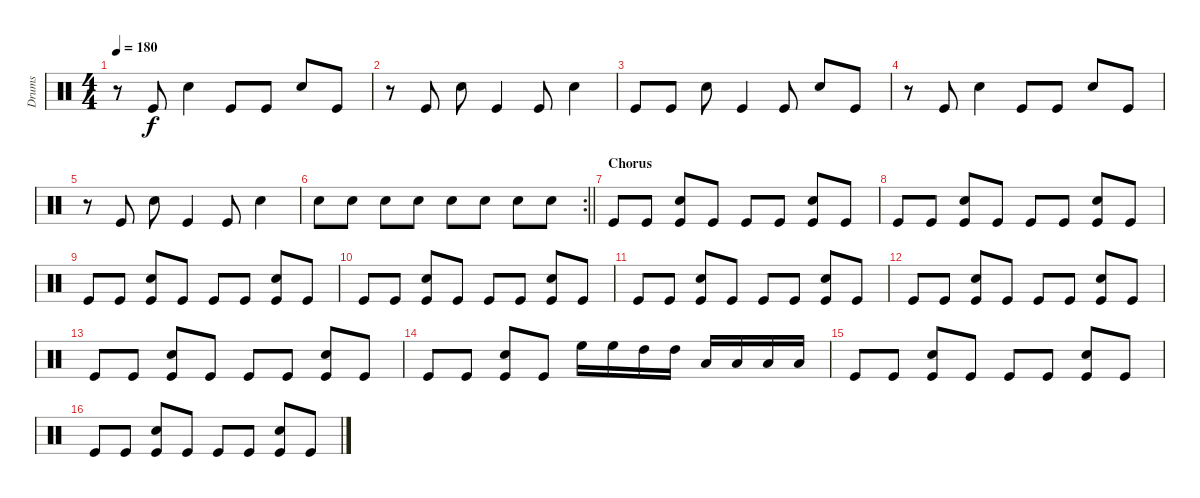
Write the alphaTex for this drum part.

\track ("Drums" "Drums") {instrument percussion}
\staff {score}
\articulation defaults
\ts (4 4)
\tempo 180
\clef neutral
\ks c
r.8{dy f} "Kick (hit)".8 "Electric Snare (hit)".4 "Kick (hit)".8 "Kick (hit)".8 "Electric Snare (hit)".8 "Kick (hit)".8 |
r.8 "Kick (hit)".8 "Electric Snare (hit)".8 "Kick (hit)".4 "Kick (hit)".8 "Electric Snare (hit)".4 |
"Kick (hit)".8 "Kick (hit)".8 "Electric Snare (hit)".8 "Kick (hit)".4 "Kick (hit)".8 "Electric Snare (hit)".8 "Kick (hit)".8 |
r.8 "Kick (hit)".8 "Electric Snare (hit)".4 "Kick (hit)".8 "Kick (hit)".8 "Electric Snare (hit)".8 "Kick (hit)".8 |
r.8 "Kick (hit)".8 "Electric Snare (hit)".8 "Kick (hit)".4 "Kick (hit)".8 "Electric Snare (hit)".4 |
\rc 2
\barLineRight lightlight "Electric Snare (hit)".8 "Electric Snare (hit)".8 "Electric Snare (hit)".8 "Electric Snare (hit)".8 "Electric Snare (hit)".8 "Electric Snare (hit)".8 "Electric Snare (hit)".8 "Electric Snare (hit)".8
|
\section ("" "Chorus")
"Kick (hit)".8 "Kick (hit)".8 ("Electric Snare (hit)" "Kick (hit)").8 "Kick (hit)".8 "Kick (hit)".8 "Kick (hit)".8 ("Electric Snare (hit)" "Kick (hit)").8 "Kick (hit)".8 |
"Kick (hit)".8 "Kick (hit)".8 ("Electric Snare (hit)" "Kick (hit)").8 "Kick (hit)".8 "Kick (hit)".8 "Kick (hit)".8 ("Electric Snare (hit)" "Kick (hit)").8 "Kick (hit)".8 |
"Kick (hit)".8 "Kick (hit)".8 ("Electric Snare (hit)" "Kick (hit)").8 "Kick (hit)".8 "Kick (hit)".8 "Kick (hit)".8 ("Electric Snare (hit)" "Kick (hit)").8 "Kick (hit)".8 |
"Kick (hit)".8 "Kick (hit)".8 ("Electric Snare (hit)" "Kick (hit)").8 "Kick (hit)".8 "Kick (hit)".8 "Kick (hit)".8 ("Electric Snare (hit)" "Kick (hit)").8 "Kick (hit)".8 |
"Kick (hit)".8 "Kick (hit)".8 ("Electric Snare (hit)" "Kick (hit)").8 "Kick (hit)".8 "Kick (hit)".8 "Kick (hit)".8 ("Electric Snare (hit)" "Kick (hit)").8 "Kick (hit)".8 |
"Kick (hit)".8 "Kick (hit)".8 ("Electric Snare (hit)" "Kick (hit)").8 "Kick (hit)".8 "Kick (hit)".8 "Kick (hit)".8 ("Electric Snare (hit)" "Kick (hit)").8 "Kick (hit)".8 |
"Kick (hit)".8 "Kick (hit)".8 ("Electric Snare (hit)" "Kick (hit)").8 "Kick (hit)".8 "Kick (hit)".8 "Kick (hit)".8 ("Electric Snare (hit)" "Kick (hit)").8 "Kick (hit)".8 |
"Kick (hit)".8 "Kick (hit)".8 ("Electric Snare (hit)" "Kick (hit)").8 "Kick (hit)".8 "High Floor Tom (hit)".16 "High Floor Tom (hit)".16 "High Tom (hit)".16 "High Tom (hit)".16 "Low Tom (hit)".16 "Low Tom (hit)".16 "Low Floor Tom (hit)".16 "Low Floor Tom (hit)".16 |
"Kick (hit)".8 "Kick (hit)".8 ("Electric Snare (hit)" "Kick (hit)").8 "Kick (hit)".8 "Kick (hit)".8 "Kick (hit)".8 ("Electric Snare (hit)" "Kick (hit)").8 "Kick (hit)".8 |
"Kick (hit)".8 "Kick (hit)".8 ("Electric Snare (hit)" "Kick (hit)").8 "Kick (hit)".8 "Kick (hit)".8 "Kick (hit)".8 ("Electric Snare (hit)" "Kick (hit)").8 "Kick (hit)".8
